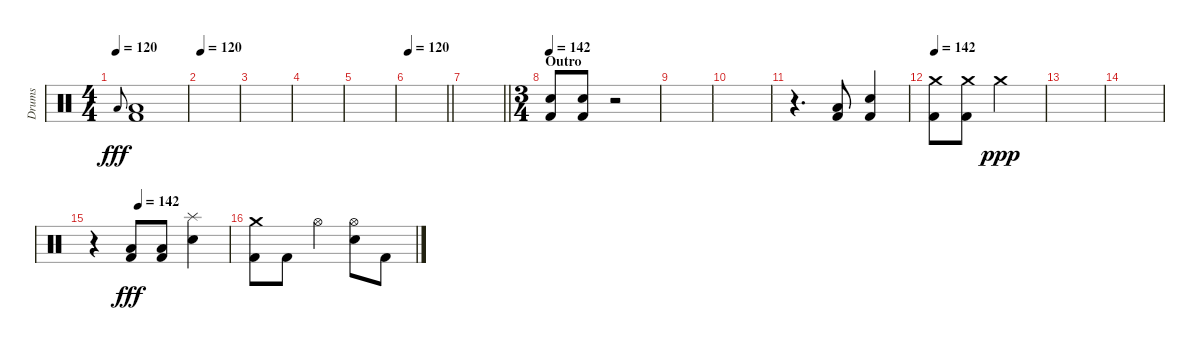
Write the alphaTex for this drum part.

\track ("Drums" "Drums") {instrument percussion}
\staff {score}
\articulation defaults
\ts (4 4)
\tempo 120
\clef neutral
\ks c "Low Floor Tom (hit)".8{gr onbeat dy fff}
("Low Floor Tom (hit)" "Kick (hit) 2").1 |
\tempo 120
|
|
|
|
\tempo 120
\barLineRight lightlight
|
\barLineRight lightlight
|
\ts (3 4)
\section ("" "Outro")
\tempo 142
("Kick (hit) 2" "Electric Snare (hit)").8 ("Kick (hit) 2" "Electric Snare (hit)").8 r.2 |
|
|
r.4{d} ("Low Floor Tom (hit)" "Kick (hit) 2").8 ("Kick (hit) 2" "Electric Snare (hit)").4 |
\tempo 142
("Kick (hit) 2" "Crash medium (hit)").8 ("Kick (hit) 2" "Crash medium (hit)").8 "Crash medium (hit)".2{dy ppp} |
|
|
\tempo (142 0.3333333333333333)
r.4 ("Low Floor Tom (hit)" "Kick (hit) 2").8{dy fff} ("Low Floor Tom (hit)" "Kick (hit) 2").8 ("Splash (hit)" "Electric Snare (hit)").4 |
("Crash medium (hit)" "Kick (hit) 2").8 "Kick (hit) 2".8 "Hi-Hat (open)".4 ("Hi-Hat (open)" "Electric Snare (hit)").8 "Kick (hit) 2".8
